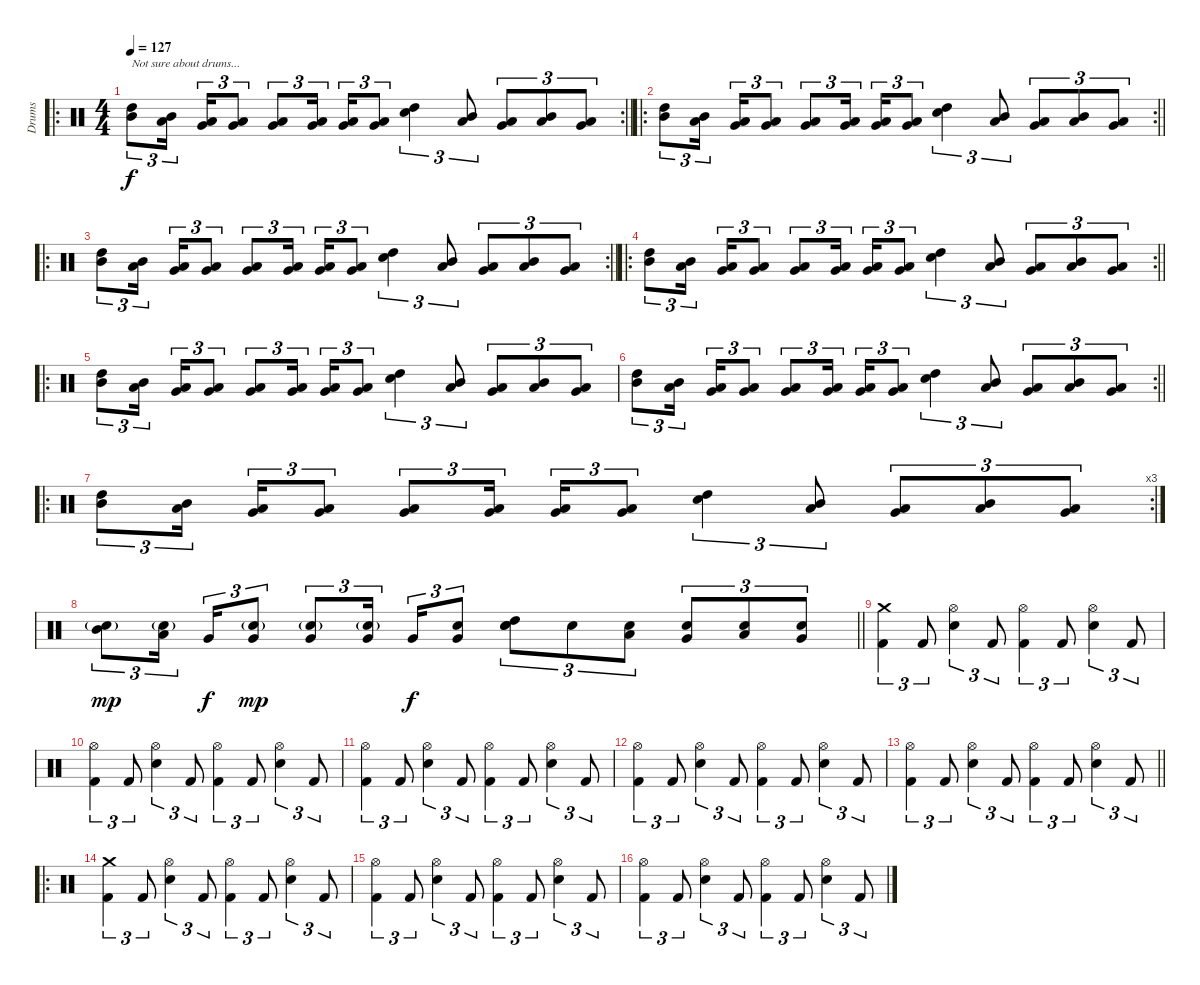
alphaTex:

\track ("Drums" "Drums") {instrument percussion}
\staff {score}
\articulation defaults
\ro
\rc 2
\ts (4 4)
\section ("" "")
\tempo 127
\clef neutral
\barLineRight lightlight
\ks c
("Mid Tom (hit)" "High Tom (hit)").8{tu (3 2) txt "Not sure about drums..." dy f} ("Low Tom (hit)" "Mid Tom (hit)").16{tu (3 2)} ("Very Low Tom (hit)" "Low Tom (hit)").16{tu (3 2)} ("Very Low Tom (hit)" "Low Tom (hit)").8{tu (3 2)} ("Very Low Tom (hit)" "Low Tom (hit)").8{tu (3 2)} ("Very Low Tom (hit)" "Low Tom (hit)").16{tu (3 2)} ("Very Low Tom (hit)" "Low Tom (hit)").16{tu (3 2)} ("Very Low Tom (hit)" "Low Tom (hit)").8{tu (3 2)} ("Snare (hit) 2" "High Tom (hit)").4{tu (3 2)} ("Low Tom (hit)" "Mid Tom (hit)").8{tu (3 2)} ("Very Low Tom (hit)" "Low Tom (hit)").8{tu (3 2)} ("Low Tom (hit)" "Mid Tom (hit)").8{tu (3 2)} ("Very Low Tom (hit)" "Low Tom (hit)").8{tu (3 2)} |
\ro
\rc 2
\section ("" "")
\barLineRight lightlight
("Mid Tom (hit)" "High Tom (hit)").8{tu (3 2)} ("Low Tom (hit)" "Mid Tom (hit)").16{tu (3 2)} ("Very Low Tom (hit)" "Low Tom (hit)").16{tu (3 2)} ("Very Low Tom (hit)" "Low Tom (hit)").8{tu (3 2)} ("Very Low Tom (hit)" "Low Tom (hit)").8{tu (3 2)} ("Very Low Tom (hit)" "Low Tom (hit)").16{tu (3 2)} ("Very Low Tom (hit)" "Low Tom (hit)").16{tu (3 2)} ("Very Low Tom (hit)" "Low Tom (hit)").8{tu (3 2)} ("Snare (hit) 2" "High Tom (hit)").4{tu (3 2)} ("Low Tom (hit)" "Mid Tom (hit)").8{tu (3 2)} ("Very Low Tom (hit)" "Low Tom (hit)").8{tu (3 2)} ("Low Tom (hit)" "Mid Tom (hit)").8{tu (3 2)} ("Very Low Tom (hit)" "Low Tom (hit)").8{tu (3 2)} |
\ro
\rc 2
\section ("" "")
\barLineRight lightlight
("Mid Tom (hit)" "High Tom (hit)").8{tu (3 2)} ("Low Tom (hit)" "Mid Tom (hit)").16{tu (3 2)} ("Very Low Tom (hit)" "Low Tom (hit)").16{tu (3 2)} ("Very Low Tom (hit)" "Low Tom (hit)").8{tu (3 2)} ("Very Low Tom (hit)" "Low Tom (hit)").8{tu (3 2)} ("Very Low Tom (hit)" "Low Tom (hit)").16{tu (3 2)} ("Very Low Tom (hit)" "Low Tom (hit)").16{tu (3 2)} ("Very Low Tom (hit)" "Low Tom (hit)").8{tu (3 2)} ("Snare (hit) 2" "High Tom (hit)").4{tu (3 2)} ("Low Tom (hit)" "Mid Tom (hit)").8{tu (3 2)} ("Very Low Tom (hit)" "Low Tom (hit)").8{tu (3 2)} ("Low Tom (hit)" "Mid Tom (hit)").8{tu (3 2)} ("Very Low Tom (hit)" "Low Tom (hit)").8{tu (3 2)} |
\ro
\rc 2
\section ("" "")
\barLineRight lightlight
("Mid Tom (hit)" "High Tom (hit)").8{tu (3 2)} ("Low Tom (hit)" "Mid Tom (hit)").16{tu (3 2)} ("Very Low Tom (hit)" "Low Tom (hit)").16{tu (3 2)} ("Very Low Tom (hit)" "Low Tom (hit)").8{tu (3 2)} ("Very Low Tom (hit)" "Low Tom (hit)").8{tu (3 2)} ("Very Low Tom (hit)" "Low Tom (hit)").16{tu (3 2)} ("Very Low Tom (hit)" "Low Tom (hit)").16{tu (3 2)} ("Very Low Tom (hit)" "Low Tom (hit)").8{tu (3 2)} ("Snare (hit) 2" "High Tom (hit)").4{tu (3 2)} ("Low Tom (hit)" "Mid Tom (hit)").8{tu (3 2)} ("Very Low Tom (hit)" "Low Tom (hit)").8{tu (3 2)} ("Low Tom (hit)" "Mid Tom (hit)").8{tu (3 2)} ("Very Low Tom (hit)" "Low Tom (hit)").8{tu (3 2)} |
\ro
\section ("" "")
("Mid Tom (hit)" "High Tom (hit)").8{tu (3 2)} ("Low Tom (hit)" "Mid Tom (hit)").16{tu (3 2)} ("Very Low Tom (hit)" "Low Tom (hit)").16{tu (3 2)} ("Very Low Tom (hit)" "Low Tom (hit)").8{tu (3 2)} ("Very Low Tom (hit)" "Low Tom (hit)").8{tu (3 2)} ("Very Low Tom (hit)" "Low Tom (hit)").16{tu (3 2)} ("Very Low Tom (hit)" "Low Tom (hit)").16{tu (3 2)} ("Very Low Tom (hit)" "Low Tom (hit)").8{tu (3 2)} ("Snare (hit) 2" "High Tom (hit)").4{tu (3 2)} ("Low Tom (hit)" "Mid Tom (hit)").8{tu (3 2)} ("Very Low Tom (hit)" "Low Tom (hit)").8{tu (3 2)} ("Low Tom (hit)" "Mid Tom (hit)").8{tu (3 2)} ("Very Low Tom (hit)" "Low Tom (hit)").8{tu (3 2)} |
\rc 2
\barLineRight lightlight
("Mid Tom (hit)" "High Tom (hit)").8{tu (3 2)} ("Low Tom (hit)" "Mid Tom (hit)").16{tu (3 2)} ("Very Low Tom (hit)" "Low Tom (hit)").16{tu (3 2)} ("Very Low Tom (hit)" "Low Tom (hit)").8{tu (3 2)} ("Very Low Tom (hit)" "Low Tom (hit)").8{tu (3 2)} ("Very Low Tom (hit)" "Low Tom (hit)").16{tu (3 2)} ("Very Low Tom (hit)" "Low Tom (hit)").16{tu (3 2)} ("Very Low Tom (hit)" "Low Tom (hit)").8{tu (3 2)} ("Snare (hit) 2" "High Tom (hit)").4{tu (3 2)} ("Low Tom (hit)" "Mid Tom (hit)").8{tu (3 2)} ("Very Low Tom (hit)" "Low Tom (hit)").8{tu (3 2)} ("Low Tom (hit)" "Mid Tom (hit)").8{tu (3 2)} ("Very Low Tom (hit)" "Low Tom (hit)").8{tu (3 2)} |
\ro
\rc 3
\section ("" "")
("Mid Tom (hit)" "High Tom (hit)").8{tu (3 2)} ("Low Tom (hit)" "Mid Tom (hit)").16{tu (3 2)} ("Very Low Tom (hit)" "Low Tom (hit)").16{tu (3 2)} ("Very Low Tom (hit)" "Low Tom (hit)").8{tu (3 2)} ("Very Low Tom (hit)" "Low Tom (hit)").8{tu (3 2)} ("Very Low Tom (hit)" "Low Tom (hit)").16{tu (3 2)} ("Very Low Tom (hit)" "Low Tom (hit)").16{tu (3 2)} ("Very Low Tom (hit)" "Low Tom (hit)").8{tu (3 2)} ("Snare (hit) 2" "High Tom (hit)").4{tu (3 2)} ("Low Tom (hit)" "Mid Tom (hit)").8{tu (3 2)} ("Very Low Tom (hit)" "Low Tom (hit)").8{tu (3 2)} ("Low Tom (hit)" "Mid Tom (hit)").8{tu (3 2)} ("Very Low Tom (hit)" "Low Tom (hit)").8{tu (3 2)} |
\barLineRight lightlight
("Mid Tom (hit)" "Snare (hit) 2"{g}).8{tu (3 2) dy mp} ("Low Tom (hit)" "Snare (hit) 2"{g}).16{tu (3 2)} "Very Low Tom (hit)".16{tu (3 2) dy f} ("Very Low Tom (hit)" "Snare (hit) 2"{g}).8{tu (3 2) dy mp} ("Very Low Tom (hit)" "Snare (hit) 2"{g}).8{tu (3 2)} ("Very Low Tom (hit)" "Snare (hit) 2"{g}).16{tu (3 2)} "Very Low Tom (hit)".16{tu (3 2) dy f} ("Very Low Tom (hit)" "Snare (hit) 2").8{tu (3 2)} ("Snare (hit) 2" "High Tom (hit)" "Snare (hit) 2").8{tu (3 2)} "Snare (hit) 2".8{tu (3 2)} ("Low Tom (hit)" "Snare (hit) 2").8{tu (3 2)} ("Very Low Tom (hit)" "Snare (hit) 2").8{tu (3 2)} ("Low Tom (hit)" "Snare (hit) 2").8{tu (3 2)} ("Very Low Tom (hit)" "Snare (hit) 2").8{tu (3 2)} |
\section ("" "")
("Kick (hit) 2" "Crash medium (hit)").4{tu (3 2)} "Kick (hit) 2".8{tu (3 2)} ("Snare (hit) 2" "Hi-Hat (open)").4{tu (3 2)} "Kick (hit) 2".8{tu (3 2)} ("Kick (hit) 2" "Hi-Hat (open)").4{tu (3 2)} "Kick (hit) 2".8{tu (3 2)} ("Snare (hit) 2" "Hi-Hat (open)").4{tu (3 2)} "Kick (hit) 2".8{tu (3 2)} |
("Kick (hit) 2" "Hi-Hat (open)").4{tu (3 2)} "Kick (hit) 2".8{tu (3 2)} ("Snare (hit) 2" "Hi-Hat (open)").4{tu (3 2)} "Kick (hit) 2".8{tu (3 2)} ("Kick (hit) 2" "Hi-Hat (open)").4{tu (3 2)} "Kick (hit) 2".8{tu (3 2)} ("Snare (hit) 2" "Hi-Hat (open)").4{tu (3 2)} "Kick (hit) 2".8{tu (3 2)} |
("Kick (hit) 2" "Hi-Hat (open)").4{tu (3 2)} "Kick (hit) 2".8{tu (3 2)} ("Snare (hit) 2" "Hi-Hat (open)").4{tu (3 2)} "Kick (hit) 2".8{tu (3 2)} ("Kick (hit) 2" "Hi-Hat (open)").4{tu (3 2)} "Kick (hit) 2".8{tu (3 2)} ("Snare (hit) 2" "Hi-Hat (open)").4{tu (3 2)} "Kick (hit) 2".8{tu (3 2)} |
("Kick (hit) 2" "Hi-Hat (open)").4{tu (3 2)} "Kick (hit) 2".8{tu (3 2)} ("Snare (hit) 2" "Hi-Hat (open)").4{tu (3 2)} "Kick (hit) 2".8{tu (3 2)} ("Kick (hit) 2" "Hi-Hat (open)").4{tu (3 2)} "Kick (hit) 2".8{tu (3 2)} ("Snare (hit) 2" "Hi-Hat (open)").4{tu (3 2)} "Kick (hit) 2".8{tu (3 2)} |
\barLineRight lightlight
("Kick (hit) 2" "Hi-Hat (open)").4{tu (3 2)} "Kick (hit) 2".8{tu (3 2)} ("Snare (hit) 2" "Hi-Hat (open)").4{tu (3 2)} "Kick (hit) 2".8{tu (3 2)} ("Kick (hit) 2" "Hi-Hat (open)").4{tu (3 2)} "Kick (hit) 2".8{tu (3 2)} ("Snare (hit) 2" "Hi-Hat (open)").4{tu (3 2)} "Kick (hit) 2".8{tu (3 2)} |
\ro
\section ("" "")
("Kick (hit) 2" "Crash medium (hit)").4{tu (3 2)} "Kick (hit) 2".8{tu (3 2)} ("Snare (hit) 2" "Hi-Hat (open)").4{tu (3 2)} "Kick (hit) 2".8{tu (3 2)} ("Kick (hit) 2" "Hi-Hat (open)").4{tu (3 2)} "Kick (hit) 2".8{tu (3 2)} ("Snare (hit) 2" "Hi-Hat (open)").4{tu (3 2)} "Kick (hit) 2".8{tu (3 2)} |
("Kick (hit) 2" "Hi-Hat (open)").4{tu (3 2)} "Kick (hit) 2".8{tu (3 2)} ("Snare (hit) 2" "Hi-Hat (open)").4{tu (3 2)} "Kick (hit) 2".8{tu (3 2)} ("Kick (hit) 2" "Hi-Hat (open)").4{tu (3 2)} "Kick (hit) 2".8{tu (3 2)} ("Snare (hit) 2" "Hi-Hat (open)").4{tu (3 2)} "Kick (hit) 2".8{tu (3 2)} |
("Kick (hit) 2" "Hi-Hat (open)").4{tu (3 2)} "Kick (hit) 2".8{tu (3 2)} ("Snare (hit) 2" "Hi-Hat (open)").4{tu (3 2)} "Kick (hit) 2".8{tu (3 2)} ("Kick (hit) 2" "Hi-Hat (open)").4{tu (3 2)} "Kick (hit) 2".8{tu (3 2)} ("Snare (hit) 2" "Hi-Hat (open)").4{tu (3 2)} "Kick (hit) 2".8{tu (3 2)}
